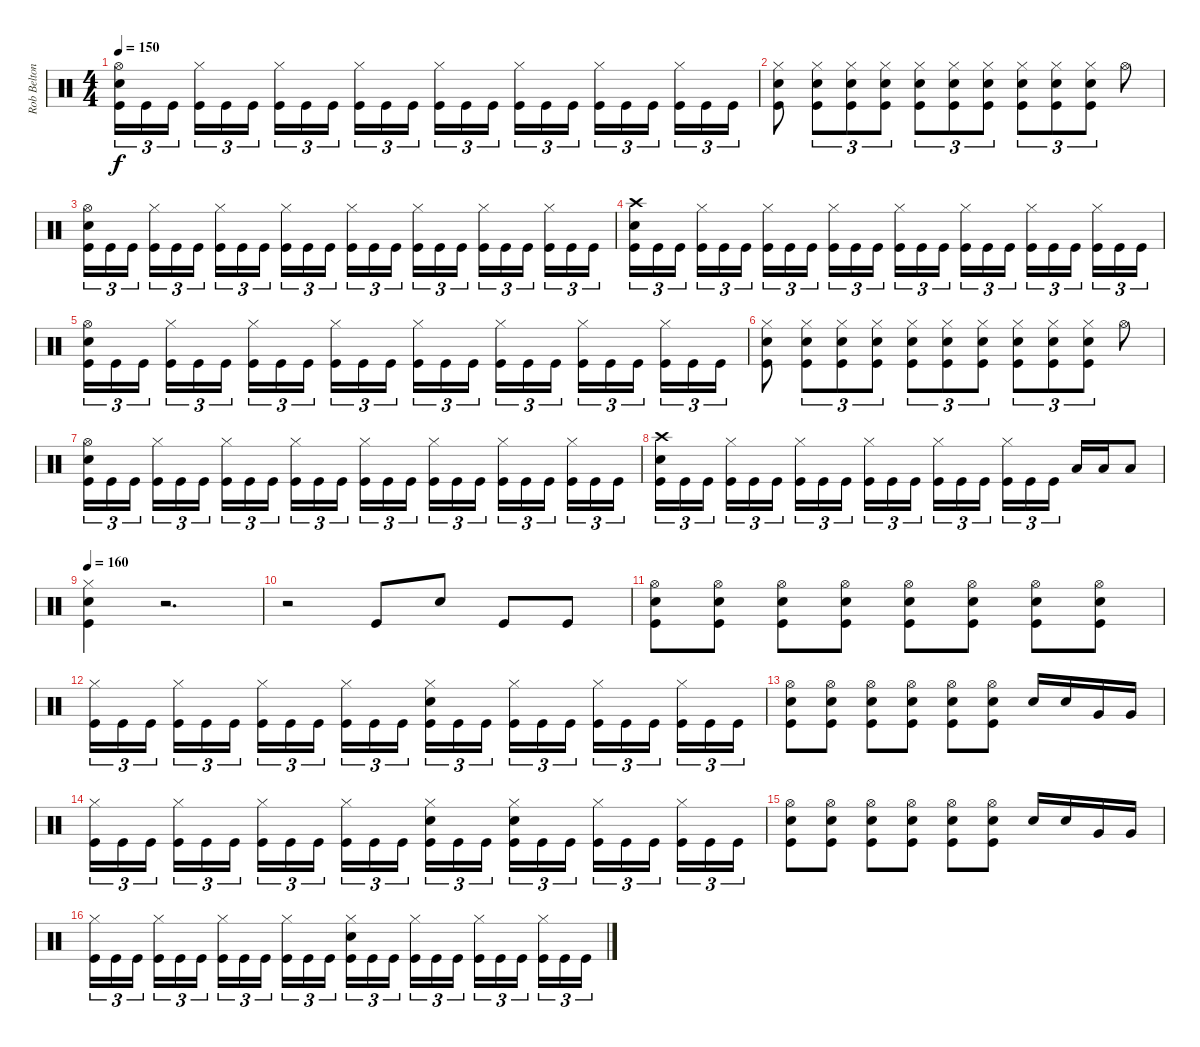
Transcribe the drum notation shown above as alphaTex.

\track ("Rob Belton" "Rob Belton") {instrument percussion}
\staff {score}
\articulation defaults
\ts (4 4)
\tempo 150
\clef neutral
\ks c
("Hi-Hat (open)" "Snare (hit) 2" "Kick (hit)").16{tu (3 2) dy f} "Kick (hit)".16{tu (3 2)} "Kick (hit)".16{tu (3 2) beam splitsecondary} ("Hi-Hat (closed)" "Kick (hit)").16{tu (3 2)} "Kick (hit)".16{tu (3 2)} "Kick (hit)".16{tu (3 2)} ("Hi-Hat (closed)" "Kick (hit)").16{tu (3 2)} "Kick (hit)".16{tu (3 2)} "Kick (hit)".16{tu (3 2) beam splitsecondary} ("Hi-Hat (closed)" "Kick (hit)").16{tu (3 2)} "Kick (hit)".16{tu (3 2)} "Kick (hit)".16{tu (3 2)} ("Hi-Hat (closed)" "Kick (hit)").16{tu (3 2)} "Kick (hit)".16{tu (3 2)} "Kick (hit)".16{tu (3 2) beam splitsecondary} ("Hi-Hat (closed)" "Kick (hit)").16{tu (3 2)} "Kick (hit)".16{tu (3 2)} "Kick (hit)".16{tu (3 2)} ("Hi-Hat (closed)" "Kick (hit)").16{tu (3 2)} "Kick (hit)".16{tu (3 2)} "Kick (hit)".16{tu (3 2) beam splitsecondary} ("Hi-Hat (closed)" "Kick (hit)").16{tu (3 2)} "Kick (hit)".16{tu (3 2)} "Kick (hit)".16{tu (3 2)} |
("Hi-Hat (closed)" "Snare (hit) 2" "Kick (hit)").8 ("Hi-Hat (closed)" "Snare (hit) 2" "Kick (hit)").8{tu (3 2)} ("Hi-Hat (closed)" "Snare (hit) 2" "Kick (hit)").8{tu (3 2)} ("Hi-Hat (closed)" "Snare (hit) 2" "Kick (hit)").8{tu (3 2)} ("Hi-Hat (closed)" "Snare (hit) 2" "Kick (hit)").8{tu (3 2)} ("Hi-Hat (closed)" "Snare (hit) 2" "Kick (hit)").8{tu (3 2)} ("Hi-Hat (closed)" "Snare (hit) 2" "Kick (hit)").8{tu (3 2)} ("Hi-Hat (closed)" "Snare (hit) 2" "Kick (hit)").8{tu (3 2)} ("Hi-Hat (closed)" "Snare (hit) 2" "Kick (hit)").8{tu (3 2)} ("Hi-Hat (closed)" "Snare (hit) 2" "Kick (hit)").8{tu (3 2)} "Hi-Hat (open)".8 |
("Hi-Hat (open)" "Snare (hit) 2" "Kick (hit)").16{tu (3 2)} "Kick (hit)".16{tu (3 2)} "Kick (hit)".16{tu (3 2) beam splitsecondary} ("Hi-Hat (closed)" "Kick (hit)").16{tu (3 2)} "Kick (hit)".16{tu (3 2)} "Kick (hit)".16{tu (3 2)} ("Hi-Hat (closed)" "Kick (hit)").16{tu (3 2)} "Kick (hit)".16{tu (3 2)} "Kick (hit)".16{tu (3 2) beam splitsecondary} ("Hi-Hat (closed)" "Kick (hit)").16{tu (3 2)} "Kick (hit)".16{tu (3 2)} "Kick (hit)".16{tu (3 2)} ("Hi-Hat (closed)" "Kick (hit)").16{tu (3 2)} "Kick (hit)".16{tu (3 2)} "Kick (hit)".16{tu (3 2) beam splitsecondary} ("Hi-Hat (closed)" "Kick (hit)").16{tu (3 2)} "Kick (hit)".16{tu (3 2)} "Kick (hit)".16{tu (3 2)} ("Hi-Hat (closed)" "Kick (hit)").16{tu (3 2)} "Kick (hit)".16{tu (3 2)} "Kick (hit)".16{tu (3 2) beam splitsecondary} ("Hi-Hat (closed)" "Kick (hit)").16{tu (3 2)} "Kick (hit)".16{tu (3 2)} "Kick (hit)".16{tu (3 2)} |
("Crash high (hit)" "Snare (hit) 2" "Kick (hit)").16{tu (3 2)} "Kick (hit)".16{tu (3 2)} "Kick (hit)".16{tu (3 2) beam splitsecondary} ("Hi-Hat (closed)" "Kick (hit)").16{tu (3 2)} "Kick (hit)".16{tu (3 2)} "Kick (hit)".16{tu (3 2)} ("Hi-Hat (closed)" "Kick (hit)").16{tu (3 2)} "Kick (hit)".16{tu (3 2)} "Kick (hit)".16{tu (3 2) beam splitsecondary} ("Hi-Hat (closed)" "Kick (hit)").16{tu (3 2)} "Kick (hit)".16{tu (3 2)} "Kick (hit)".16{tu (3 2)} ("Hi-Hat (closed)" "Kick (hit)").16{tu (3 2)} "Kick (hit)".16{tu (3 2)} "Kick (hit)".16{tu (3 2) beam splitsecondary} ("Hi-Hat (closed)" "Kick (hit)").16{tu (3 2)} "Kick (hit)".16{tu (3 2)} "Kick (hit)".16{tu (3 2)} ("Hi-Hat (closed)" "Kick (hit)").16{tu (3 2)} "Kick (hit)".16{tu (3 2)} "Kick (hit)".16{tu (3 2) beam splitsecondary} ("Hi-Hat (closed)" "Kick (hit)").16{tu (3 2)} "Kick (hit)".16{tu (3 2)} "Kick (hit)".16{tu (3 2)} |
("Hi-Hat (open)" "Snare (hit) 2" "Kick (hit)").16{tu (3 2)} "Kick (hit)".16{tu (3 2)} "Kick (hit)".16{tu (3 2) beam splitsecondary} ("Hi-Hat (closed)" "Kick (hit)").16{tu (3 2)} "Kick (hit)".16{tu (3 2)} "Kick (hit)".16{tu (3 2)} ("Hi-Hat (closed)" "Kick (hit)").16{tu (3 2)} "Kick (hit)".16{tu (3 2)} "Kick (hit)".16{tu (3 2) beam splitsecondary} ("Hi-Hat (closed)" "Kick (hit)").16{tu (3 2)} "Kick (hit)".16{tu (3 2)} "Kick (hit)".16{tu (3 2)} ("Hi-Hat (closed)" "Kick (hit)").16{tu (3 2)} "Kick (hit)".16{tu (3 2)} "Kick (hit)".16{tu (3 2) beam splitsecondary} ("Hi-Hat (closed)" "Kick (hit)").16{tu (3 2)} "Kick (hit)".16{tu (3 2)} "Kick (hit)".16{tu (3 2)} ("Hi-Hat (closed)" "Kick (hit)").16{tu (3 2)} "Kick (hit)".16{tu (3 2)} "Kick (hit)".16{tu (3 2) beam splitsecondary} ("Hi-Hat (closed)" "Kick (hit)").16{tu (3 2)} "Kick (hit)".16{tu (3 2)} "Kick (hit)".16{tu (3 2)} |
("Hi-Hat (closed)" "Snare (hit) 2" "Kick (hit)").8 ("Hi-Hat (closed)" "Snare (hit) 2" "Kick (hit)").8{tu (3 2)} ("Hi-Hat (closed)" "Snare (hit) 2" "Kick (hit)").8{tu (3 2)} ("Hi-Hat (closed)" "Snare (hit) 2" "Kick (hit)").8{tu (3 2)} ("Hi-Hat (closed)" "Snare (hit) 2" "Kick (hit)").8{tu (3 2)} ("Hi-Hat (closed)" "Snare (hit) 2" "Kick (hit)").8{tu (3 2)} ("Hi-Hat (closed)" "Snare (hit) 2" "Kick (hit)").8{tu (3 2)} ("Hi-Hat (closed)" "Snare (hit) 2" "Kick (hit)").8{tu (3 2)} ("Hi-Hat (closed)" "Snare (hit) 2" "Kick (hit)").8{tu (3 2)} ("Hi-Hat (closed)" "Snare (hit) 2" "Kick (hit)").8{tu (3 2)} "Hi-Hat (open)".8 |
("Hi-Hat (open)" "Snare (hit) 2" "Kick (hit)").16{tu (3 2)} "Kick (hit)".16{tu (3 2)} "Kick (hit)".16{tu (3 2) beam splitsecondary} ("Hi-Hat (closed)" "Kick (hit)").16{tu (3 2)} "Kick (hit)".16{tu (3 2)} "Kick (hit)".16{tu (3 2)} ("Hi-Hat (closed)" "Kick (hit)").16{tu (3 2)} "Kick (hit)".16{tu (3 2)} "Kick (hit)".16{tu (3 2) beam splitsecondary} ("Hi-Hat (closed)" "Kick (hit)").16{tu (3 2)} "Kick (hit)".16{tu (3 2)} "Kick (hit)".16{tu (3 2)} ("Hi-Hat (closed)" "Kick (hit)").16{tu (3 2)} "Kick (hit)".16{tu (3 2)} "Kick (hit)".16{tu (3 2) beam splitsecondary} ("Hi-Hat (closed)" "Kick (hit)").16{tu (3 2)} "Kick (hit)".16{tu (3 2)} "Kick (hit)".16{tu (3 2)} ("Hi-Hat (closed)" "Kick (hit)").16{tu (3 2)} "Kick (hit)".16{tu (3 2)} "Kick (hit)".16{tu (3 2) beam splitsecondary} ("Hi-Hat (closed)" "Kick (hit)").16{tu (3 2)} "Kick (hit)".16{tu (3 2)} "Kick (hit)".16{tu (3 2)} |
("Crash high (hit)" "Snare (hit) 2" "Kick (hit)").16{tu (3 2)} "Kick (hit)".16{tu (3 2)} "Kick (hit)".16{tu (3 2) beam splitsecondary} ("Hi-Hat (closed)" "Kick (hit)").16{tu (3 2)} "Kick (hit)".16{tu (3 2)} "Kick (hit)".16{tu (3 2)} ("Hi-Hat (closed)" "Kick (hit)").16{tu (3 2)} "Kick (hit)".16{tu (3 2)} "Kick (hit)".16{tu (3 2) beam splitsecondary} ("Hi-Hat (closed)" "Kick (hit)").16{tu (3 2)} "Kick (hit)".16{tu (3 2)} "Kick (hit)".16{tu (3 2)} ("Hi-Hat (closed)" "Kick (hit)").16{tu (3 2)} "Kick (hit)".16{tu (3 2)} "Kick (hit)".16{tu (3 2) beam splitsecondary} ("Hi-Hat (closed)" "Kick (hit)").16{tu (3 2)} "Kick (hit)".16{tu (3 2)} "Kick (hit)".16{tu (3 2)} "Low Tom (hit)".16 "Low Tom (hit)".16 "Low Tom (hit)".8 |
\tempo 160
("Hi-Hat (closed)" "Snare (hit) 2" "Kick (hit)").4 r.2{d} |
r.2 "Kick (hit)".8 "Snare (hit) 2".8 "Kick (hit)".8 "Kick (hit)".8 |
("Hi-Hat (open)" "Snare (hit) 2" "Kick (hit)").8 ("Hi-Hat (open)" "Snare (hit) 2" "Kick (hit)").8 ("Hi-Hat (open)" "Snare (hit) 2" "Kick (hit)").8 ("Hi-Hat (open)" "Snare (hit) 2" "Kick (hit)").8 ("Hi-Hat (open)" "Snare (hit) 2" "Kick (hit)").8 ("Hi-Hat (open)" "Snare (hit) 2" "Kick (hit)").8 ("Hi-Hat (open)" "Snare (hit) 2" "Kick (hit)").8 ("Hi-Hat (open)" "Snare (hit) 2" "Kick (hit)").8 |
("Hi-Hat (closed)" "Kick (hit)").16{tu (3 2)} "Kick (hit)".16{tu (3 2)} "Kick (hit)".16{tu (3 2) beam splitsecondary} ("Hi-Hat (closed)" "Kick (hit)").16{tu (3 2)} "Kick (hit)".16{tu (3 2)} "Kick (hit)".16{tu (3 2)} ("Hi-Hat (closed)" "Kick (hit)").16{tu (3 2)} "Kick (hit)".16{tu (3 2)} "Kick (hit)".16{tu (3 2) beam splitsecondary} ("Hi-Hat (closed)" "Kick (hit)").16{tu (3 2)} "Kick (hit)".16{tu (3 2)} "Kick (hit)".16{tu (3 2)} ("Hi-Hat (closed)" "Snare (hit) 2" "Kick (hit)").16{tu (3 2)} "Kick (hit)".16{tu (3 2)} "Kick (hit)".16{tu (3 2) beam splitsecondary} ("Hi-Hat (closed)" "Kick (hit)").16{tu (3 2)} "Kick (hit)".16{tu (3 2)} "Kick (hit)".16{tu (3 2)} ("Hi-Hat (closed)" "Kick (hit)").16{tu (3 2)} "Kick (hit)".16{tu (3 2)} "Kick (hit)".16{tu (3 2) beam splitsecondary} ("Hi-Hat (closed)" "Kick (hit)").16{tu (3 2)} "Kick (hit)".16{tu (3 2)} "Kick (hit)".16{tu (3 2)} |
("Hi-Hat (open)" "Snare (hit) 2" "Kick (hit)").8 ("Hi-Hat (open)" "Snare (hit) 2" "Kick (hit)").8 ("Hi-Hat (open)" "Snare (hit) 2" "Kick (hit)").8 ("Hi-Hat (open)" "Snare (hit) 2" "Kick (hit)").8 ("Hi-Hat (open)" "Snare (hit) 2" "Kick (hit)").8 ("Hi-Hat (open)" "Snare (hit) 2" "Kick (hit)").8 "Snare (hit) 2".16 "Snare (hit) 2".16 "Very Low Tom (hit)".16 "Very Low Tom (hit)".16 |
("Hi-Hat (closed)" "Kick (hit)").16{tu (3 2)} "Kick (hit)".16{tu (3 2)} "Kick (hit)".16{tu (3 2) beam splitsecondary} ("Hi-Hat (closed)" "Kick (hit)").16{tu (3 2)} "Kick (hit)".16{tu (3 2)} "Kick (hit)".16{tu (3 2)} ("Hi-Hat (closed)" "Kick (hit)").16{tu (3 2)} "Kick (hit)".16{tu (3 2)} "Kick (hit)".16{tu (3 2) beam splitsecondary} ("Hi-Hat (closed)" "Kick (hit)").16{tu (3 2)} "Kick (hit)".16{tu (3 2)} "Kick (hit)".16{tu (3 2)} ("Hi-Hat (closed)" "Snare (hit) 2" "Kick (hit)").16{tu (3 2)} "Kick (hit)".16{tu (3 2)} "Kick (hit)".16{tu (3 2) beam splitsecondary} ("Hi-Hat (closed)" "Snare (hit) 2" "Kick (hit)").16{tu (3 2)} "Kick (hit)".16{tu (3 2)} "Kick (hit)".16{tu (3 2)} ("Hi-Hat (closed)" "Kick (hit)").16{tu (3 2)} "Kick (hit)".16{tu (3 2)} "Kick (hit)".16{tu (3 2) beam splitsecondary} ("Hi-Hat (closed)" "Kick (hit)").16{tu (3 2)} "Kick (hit)".16{tu (3 2)} "Kick (hit)".16{tu (3 2)} |
("Hi-Hat (open)" "Snare (hit) 2" "Kick (hit)").8 ("Hi-Hat (open)" "Snare (hit) 2" "Kick (hit)").8 ("Hi-Hat (open)" "Snare (hit) 2" "Kick (hit)").8 ("Hi-Hat (open)" "Snare (hit) 2" "Kick (hit)").8 ("Hi-Hat (open)" "Snare (hit) 2" "Kick (hit)").8 ("Hi-Hat (open)" "Snare (hit) 2" "Kick (hit)").8 "Snare (hit) 2".16 "Snare (hit) 2".16 "Very Low Tom (hit)".16 "Very Low Tom (hit)".16 |
("Hi-Hat (closed)" "Kick (hit)").16{tu (3 2)} "Kick (hit)".16{tu (3 2)} "Kick (hit)".16{tu (3 2) beam splitsecondary} ("Hi-Hat (closed)" "Kick (hit)").16{tu (3 2)} "Kick (hit)".16{tu (3 2)} "Kick (hit)".16{tu (3 2)} ("Hi-Hat (closed)" "Kick (hit)").16{tu (3 2)} "Kick (hit)".16{tu (3 2)} "Kick (hit)".16{tu (3 2) beam splitsecondary} ("Hi-Hat (closed)" "Kick (hit)").16{tu (3 2)} "Kick (hit)".16{tu (3 2)} "Kick (hit)".16{tu (3 2)} ("Hi-Hat (closed)" "Snare (hit) 2" "Kick (hit)").16{tu (3 2)} "Kick (hit)".16{tu (3 2)} "Kick (hit)".16{tu (3 2) beam splitsecondary} ("Hi-Hat (closed)" "Kick (hit)").16{tu (3 2)} "Kick (hit)".16{tu (3 2)} "Kick (hit)".16{tu (3 2)} ("Hi-Hat (closed)" "Kick (hit)").16{tu (3 2)} "Kick (hit)".16{tu (3 2)} "Kick (hit)".16{tu (3 2) beam splitsecondary} ("Hi-Hat (closed)" "Kick (hit)").16{tu (3 2)} "Kick (hit)".16{tu (3 2)} "Kick (hit)".16{tu (3 2)}
